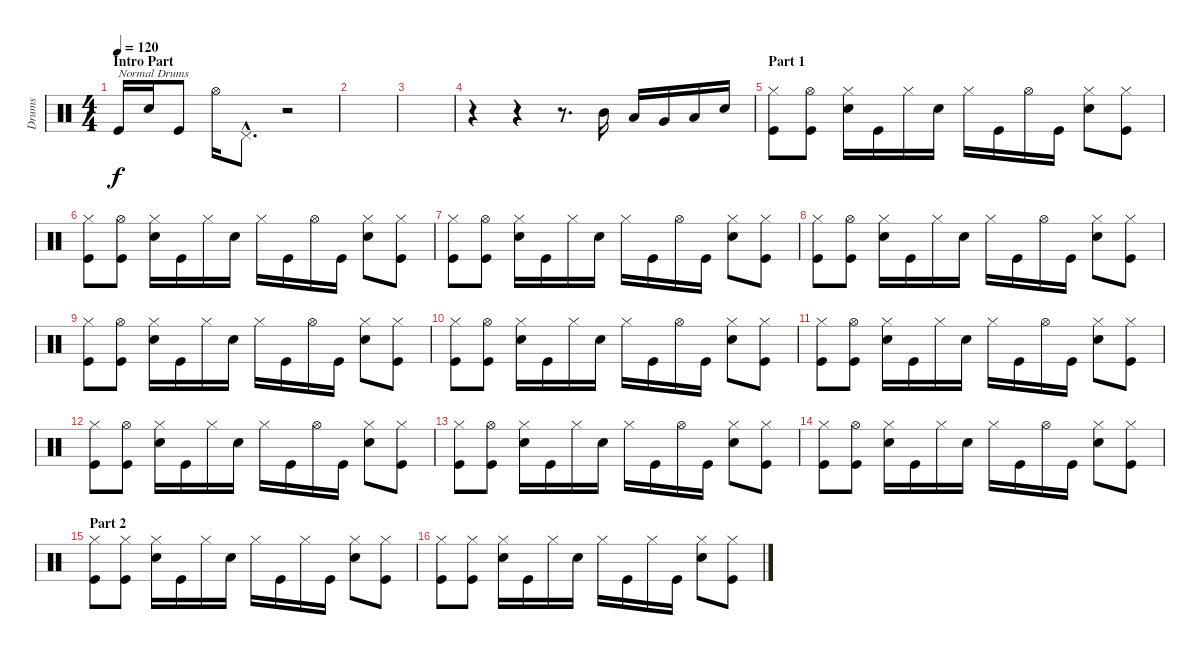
\track ("Drums" "Drums") {instrument percussion}
\staff {score}
\articulation defaults
\ts (4 4)
\section ("" "Intro Part")
\tempo 120
\clef neutral
\ks c "Kick (hit)".16{txt "Normal Drums" dy f} "Snare (hit) 2".16 "Kick (hit)".8 "Hi-Hat (open)".16 "Pedal Hi-Hat (hit)"{hac}.8{d}
r.2 |
|
|
r.4 r.4 r.8{d} "Mid Tom (hit)".16 "Low Tom (hit)".16 "Very Low Tom (hit)".16 "Low Floor Tom (hit)".16 "Electric Snare (hit)".16 |
\section ("" "Part 1")
("Hi-Hat (closed)" "Kick (hit)").8 ("Hi-Hat (open)" "Kick (hit)").8 ("Hi-Hat (closed)" "Snare (hit) 2").16 "Kick (hit)".16 "Hi-Hat (closed)".16 "Snare (hit) 2".16 "Hi-Hat (closed)".16 "Kick (hit)".16 "Hi-Hat (open)".16 "Kick (hit)".16 ("Hi-Hat (closed)" "Snare (hit) 2").8 ("Hi-Hat (closed)" "Kick (hit)").8 |
("Hi-Hat (closed)" "Kick (hit)").8 ("Hi-Hat (open)" "Kick (hit)").8 ("Hi-Hat (closed)" "Snare (hit) 2").16 "Kick (hit)".16 "Hi-Hat (closed)".16 "Snare (hit) 2".16 "Hi-Hat (closed)".16 "Kick (hit)".16 "Hi-Hat (open)".16 "Kick (hit)".16 ("Hi-Hat (closed)" "Snare (hit) 2").8 ("Hi-Hat (closed)" "Kick (hit)").8 |
("Hi-Hat (closed)" "Kick (hit)").8 ("Hi-Hat (open)" "Kick (hit)").8 ("Hi-Hat (closed)" "Snare (hit) 2").16 "Kick (hit)".16 "Hi-Hat (closed)".16 "Snare (hit) 2".16 "Hi-Hat (closed)".16 "Kick (hit)".16 "Hi-Hat (open)".16 "Kick (hit)".16 ("Hi-Hat (closed)" "Snare (hit) 2").8 ("Hi-Hat (closed)" "Kick (hit)").8 |
("Hi-Hat (closed)" "Kick (hit)").8 ("Hi-Hat (open)" "Kick (hit)").8 ("Hi-Hat (closed)" "Snare (hit) 2").16 "Kick (hit)".16 "Hi-Hat (closed)".16 "Snare (hit) 2".16 "Hi-Hat (closed)".16 "Kick (hit)".16 "Hi-Hat (open)".16 "Kick (hit)".16 ("Hi-Hat (closed)" "Snare (hit) 2").8 ("Hi-Hat (closed)" "Kick (hit)").8 |
("Hi-Hat (closed)" "Kick (hit)").8 ("Hi-Hat (open)" "Kick (hit)").8 ("Hi-Hat (closed)" "Snare (hit) 2").16 "Kick (hit)".16 "Hi-Hat (closed)".16 "Snare (hit) 2".16 "Hi-Hat (closed)".16 "Kick (hit)".16 "Hi-Hat (open)".16 "Kick (hit)".16 ("Hi-Hat (closed)" "Snare (hit) 2").8 ("Hi-Hat (closed)" "Kick (hit)").8 |
("Hi-Hat (closed)" "Kick (hit)").8 ("Hi-Hat (open)" "Kick (hit)").8 ("Hi-Hat (closed)" "Snare (hit) 2").16 "Kick (hit)".16 "Hi-Hat (closed)".16 "Snare (hit) 2".16 "Hi-Hat (closed)".16 "Kick (hit)".16 "Hi-Hat (open)".16 "Kick (hit)".16 ("Hi-Hat (closed)" "Snare (hit) 2").8 ("Hi-Hat (closed)" "Kick (hit)").8 |
("Hi-Hat (closed)" "Kick (hit)").8 ("Hi-Hat (open)" "Kick (hit)").8 ("Hi-Hat (closed)" "Snare (hit) 2").16 "Kick (hit)".16 "Hi-Hat (closed)".16 "Snare (hit) 2".16 "Hi-Hat (closed)".16 "Kick (hit)".16 "Hi-Hat (open)".16 "Kick (hit)".16 ("Hi-Hat (closed)" "Snare (hit) 2").8 ("Hi-Hat (closed)" "Kick (hit)").8 |
("Hi-Hat (closed)" "Kick (hit)").8 ("Hi-Hat (open)" "Kick (hit)").8 ("Hi-Hat (closed)" "Snare (hit) 2").16 "Kick (hit)".16 "Hi-Hat (closed)".16 "Snare (hit) 2".16 "Hi-Hat (closed)".16 "Kick (hit)".16 "Hi-Hat (open)".16 "Kick (hit)".16 ("Hi-Hat (closed)" "Snare (hit) 2").8 ("Hi-Hat (closed)" "Kick (hit)").8 |
("Hi-Hat (closed)" "Kick (hit)").8 ("Hi-Hat (open)" "Kick (hit)").8 ("Hi-Hat (closed)" "Snare (hit) 2").16 "Kick (hit)".16 "Hi-Hat (closed)".16 "Snare (hit) 2".16 "Hi-Hat (closed)".16 "Kick (hit)".16 "Hi-Hat (open)".16 "Kick (hit)".16 ("Hi-Hat (closed)" "Snare (hit) 2").8 ("Hi-Hat (closed)" "Kick (hit)").8 |
("Hi-Hat (closed)" "Kick (hit)").8 ("Hi-Hat (open)" "Kick (hit)").8 ("Hi-Hat (closed)" "Snare (hit) 2").16 "Kick (hit)".16 "Hi-Hat (closed)".16 "Snare (hit) 2".16 "Hi-Hat (closed)".16 "Kick (hit)".16 "Hi-Hat (open)".16 "Kick (hit)".16 ("Hi-Hat (closed)" "Snare (hit) 2").8 ("Hi-Hat (closed)" "Kick (hit)").8 |
\section ("" "Part 2")
("Hi-Hat (closed)" "Kick (hit)").8 ("Hi-Hat (closed)" "Kick (hit)").8 ("Hi-Hat (closed)" "Snare (hit) 2").16 "Kick (hit)".16 "Hi-Hat (closed)".16 "Snare (hit) 2".16 "Hi-Hat (closed)".16 "Kick (hit)".16 "Hi-Hat (closed)".16 "Kick (hit)".16 ("Hi-Hat (closed)" "Snare (hit) 2").8 ("Hi-Hat (closed)" "Kick (hit)").8 |
("Hi-Hat (closed)" "Kick (hit)").8 ("Hi-Hat (closed)" "Kick (hit)").8 ("Hi-Hat (closed)" "Snare (hit) 2").16 "Kick (hit)".16 "Hi-Hat (closed)".16 "Snare (hit) 2".16 "Hi-Hat (closed)".16 "Kick (hit)".16 "Hi-Hat (closed)".16 "Kick (hit)".16 ("Hi-Hat (closed)" "Snare (hit) 2").8 ("Hi-Hat (closed)" "Kick (hit)").8
